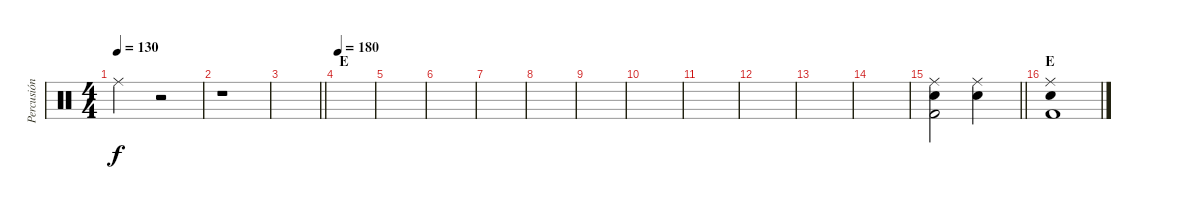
\track ("Percusión" "Percusión") {instrument percussion}
\staff {score}
\articulation defaults
\ts (4 4)
\tempo 130
\clef neutral
\ks c "Ride (middle)".2{dy f}
r.2 |
r.1 |
\barLineRight lightlight
|
\section ("" "E")
\tempo 180
|
|
|
|
|
|
|
|
|
|
|
\barLineRight lightlight
("Metronome (bell)" "Ride (middle)" "Kick (hit) 2").2 ("Metronome (bell)" "Ride (middle)").2 |
\section ("" "E")
("Metronome (bell)" "Ride (middle)" "Kick (hit) 2").1
